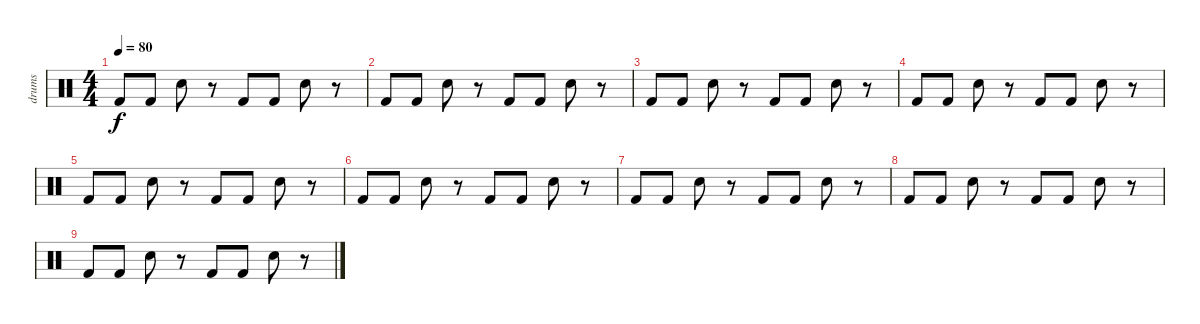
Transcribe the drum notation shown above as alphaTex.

\track ("drums" "drums") {instrument percussion}
\staff {score}
\articulation defaults
\ts (4 4)
\tempo 80
\clef neutral
\ks c "Kick (hit) 2".8{dy f} "Kick (hit) 2".8 "Hand Clap (hit)".8
r.8 "Kick (hit) 2".8 "Kick (hit) 2".8 "Hand Clap (hit)".8 r.8 |
"Kick (hit) 2".8 "Kick (hit) 2".8 "Hand Clap (hit)".8 r.8 "Kick (hit) 2".8 "Kick (hit) 2".8 "Hand Clap (hit)".8 r.8 |
"Kick (hit) 2".8 "Kick (hit) 2".8 "Hand Clap (hit)".8 r.8 "Kick (hit) 2".8 "Kick (hit) 2".8 "Hand Clap (hit)".8 r.8 |
"Kick (hit) 2".8 "Kick (hit) 2".8 "Hand Clap (hit)".8 r.8 "Kick (hit) 2".8 "Kick (hit) 2".8 "Hand Clap (hit)".8 r.8 |
"Kick (hit) 2".8 "Kick (hit) 2".8 "Hand Clap (hit)".8 r.8 "Kick (hit) 2".8 "Kick (hit) 2".8 "Hand Clap (hit)".8 r.8 |
"Kick (hit) 2".8 "Kick (hit) 2".8 "Hand Clap (hit)".8 r.8 "Kick (hit) 2".8 "Kick (hit) 2".8 "Hand Clap (hit)".8 r.8 |
"Kick (hit) 2".8 "Kick (hit) 2".8 "Hand Clap (hit)".8 r.8 "Kick (hit) 2".8 "Kick (hit) 2".8 "Hand Clap (hit)".8 r.8 |
"Kick (hit) 2".8 "Kick (hit) 2".8 "Hand Clap (hit)".8 r.8 "Kick (hit) 2".8 "Kick (hit) 2".8 "Hand Clap (hit)".8 r.8 |
"Kick (hit) 2".8 "Kick (hit) 2".8 "Hand Clap (hit)".8 r.8 "Kick (hit) 2".8 "Kick (hit) 2".8 "Hand Clap (hit)".8 r.8
